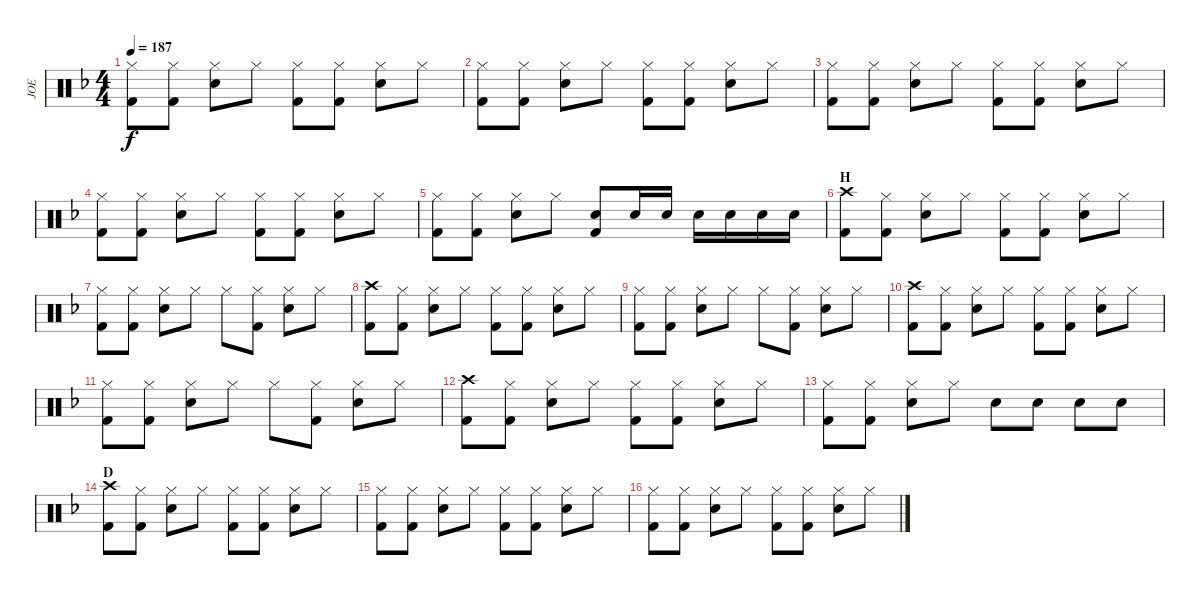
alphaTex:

\track ("JOE" "JOE") {instrument percussion}
\staff {score}
\articulation defaults
\ts (4 4)
\tempo 187
\clef neutral
\ks dminor
("Hi-Hat (closed)" "Kick (hit) 2").8{dy f} ("Hi-Hat (closed)" "Kick (hit) 2").8 ("Hi-Hat (closed)" "Snare (hit) 2").8 "Hi-Hat (closed)".8 ("Hi-Hat (closed)" "Kick (hit) 2").8 ("Hi-Hat (closed)" "Kick (hit) 2").8 ("Hi-Hat (closed)" "Snare (hit) 2").8 "Hi-Hat (closed)".8 |
("Hi-Hat (closed)" "Kick (hit) 2").8 ("Hi-Hat (closed)" "Kick (hit) 2").8 ("Hi-Hat (closed)" "Snare (hit) 2").8 "Hi-Hat (closed)".8 ("Hi-Hat (closed)" "Kick (hit) 2").8 ("Hi-Hat (closed)" "Kick (hit) 2").8 ("Hi-Hat (closed)" "Snare (hit) 2").8 "Hi-Hat (closed)".8 |
("Hi-Hat (closed)" "Kick (hit) 2").8 ("Hi-Hat (closed)" "Kick (hit) 2").8 ("Hi-Hat (closed)" "Snare (hit) 2").8 "Hi-Hat (closed)".8 ("Hi-Hat (closed)" "Kick (hit) 2").8 ("Hi-Hat (closed)" "Kick (hit) 2").8 ("Hi-Hat (closed)" "Snare (hit) 2").8 "Hi-Hat (closed)".8 |
("Hi-Hat (closed)" "Kick (hit) 2").8 ("Hi-Hat (closed)" "Kick (hit) 2").8 ("Hi-Hat (closed)" "Snare (hit) 2").8 "Hi-Hat (closed)".8 ("Hi-Hat (closed)" "Kick (hit) 2").8 ("Hi-Hat (closed)" "Kick (hit) 2").8 ("Hi-Hat (closed)" "Snare (hit) 2").8 "Hi-Hat (closed)".8 |
("Hi-Hat (closed)" "Kick (hit) 2").8 ("Hi-Hat (closed)" "Kick (hit) 2").8 ("Hi-Hat (closed)" "Snare (hit) 2").8 "Hi-Hat (closed)".8 ("Snare (hit) 2" "Kick (hit) 2").8 "Snare (hit) 2".16 "Snare (hit) 2".16 "Snare (hit) 2".16 "Snare (hit) 2".16 "Snare (hit) 2".16 "Snare (hit) 2".16 |
\section ("" "H")
("Crash high (hit)" "Kick (hit) 2").8 ("Hi-Hat (closed)" "Kick (hit) 2").8 ("Hi-Hat (closed)" "Snare (hit) 2").8 "Hi-Hat (closed)".8 ("Hi-Hat (closed)" "Kick (hit) 2").8 ("Hi-Hat (closed)" "Kick (hit) 2").8 ("Hi-Hat (closed)" "Snare (hit) 2").8 "Hi-Hat (closed)".8 |
("Hi-Hat (closed)" "Kick (hit) 2").8 ("Hi-Hat (closed)" "Kick (hit) 2").8 ("Hi-Hat (closed)" "Snare (hit) 2").8 "Hi-Hat (closed)".8 "Hi-Hat (closed)".8 ("Hi-Hat (closed)" "Kick (hit) 2").8 ("Hi-Hat (closed)" "Snare (hit) 2").8 "Hi-Hat (closed)".8 |
("Crash high (hit)" "Kick (hit) 2").8 ("Hi-Hat (closed)" "Kick (hit) 2").8 ("Hi-Hat (closed)" "Snare (hit) 2").8 "Hi-Hat (closed)".8 ("Hi-Hat (closed)" "Kick (hit) 2").8 ("Hi-Hat (closed)" "Kick (hit) 2").8 ("Hi-Hat (closed)" "Snare (hit) 2").8 "Hi-Hat (closed)".8 |
("Hi-Hat (closed)" "Kick (hit) 2").8 ("Hi-Hat (closed)" "Kick (hit) 2").8 ("Hi-Hat (closed)" "Snare (hit) 2").8 "Hi-Hat (closed)".8 "Hi-Hat (closed)".8 ("Hi-Hat (closed)" "Kick (hit) 2").8 ("Hi-Hat (closed)" "Snare (hit) 2").8 "Hi-Hat (closed)".8 |
("Crash high (hit)" "Kick (hit) 2").8 ("Hi-Hat (closed)" "Kick (hit) 2").8 ("Hi-Hat (closed)" "Snare (hit) 2").8 "Hi-Hat (closed)".8 ("Hi-Hat (closed)" "Kick (hit) 2").8 ("Hi-Hat (closed)" "Kick (hit) 2").8 ("Hi-Hat (closed)" "Snare (hit) 2").8 "Hi-Hat (closed)".8 |
("Hi-Hat (closed)" "Kick (hit) 2").8 ("Hi-Hat (closed)" "Kick (hit) 2").8 ("Hi-Hat (closed)" "Snare (hit) 2").8 "Hi-Hat (closed)".8 "Hi-Hat (closed)".8 ("Hi-Hat (closed)" "Kick (hit) 2").8 ("Hi-Hat (closed)" "Snare (hit) 2").8 "Hi-Hat (closed)".8 |
("Crash high (hit)" "Kick (hit) 2").8 ("Hi-Hat (closed)" "Kick (hit) 2").8 ("Hi-Hat (closed)" "Snare (hit) 2").8 "Hi-Hat (closed)".8 ("Hi-Hat (closed)" "Kick (hit) 2").8 ("Hi-Hat (closed)" "Kick (hit) 2").8 ("Hi-Hat (closed)" "Snare (hit) 2").8 "Hi-Hat (closed)".8 |
("Hi-Hat (closed)" "Kick (hit) 2").8 ("Hi-Hat (closed)" "Kick (hit) 2").8 ("Hi-Hat (closed)" "Snare (hit) 2").8 "Hi-Hat (closed)".8 "Snare (hit) 2".8 "Snare (hit) 2".8 "Snare (hit) 2".8 "Snare (hit) 2".8 |
\section ("" "D")
("Crash high (hit)" "Kick (hit) 2").8 ("Hi-Hat (closed)" "Kick (hit) 2").8 ("Hi-Hat (closed)" "Snare (hit) 2").8 "Hi-Hat (closed)".8 ("Hi-Hat (closed)" "Kick (hit) 2").8 ("Hi-Hat (closed)" "Kick (hit) 2").8 ("Hi-Hat (closed)" "Snare (hit) 2").8 "Hi-Hat (closed)".8 |
("Hi-Hat (closed)" "Kick (hit) 2").8 ("Hi-Hat (closed)" "Kick (hit) 2").8 ("Hi-Hat (closed)" "Snare (hit) 2").8 "Hi-Hat (closed)".8 ("Hi-Hat (closed)" "Kick (hit) 2").8 ("Hi-Hat (closed)" "Kick (hit) 2").8 ("Hi-Hat (closed)" "Snare (hit) 2").8 "Hi-Hat (closed)".8 |
("Hi-Hat (closed)" "Kick (hit) 2").8 ("Hi-Hat (closed)" "Kick (hit) 2").8 ("Hi-Hat (closed)" "Snare (hit) 2").8 "Hi-Hat (closed)".8 ("Hi-Hat (closed)" "Kick (hit) 2").8 ("Hi-Hat (closed)" "Kick (hit) 2").8 ("Hi-Hat (closed)" "Snare (hit) 2").8 "Hi-Hat (closed)".8
